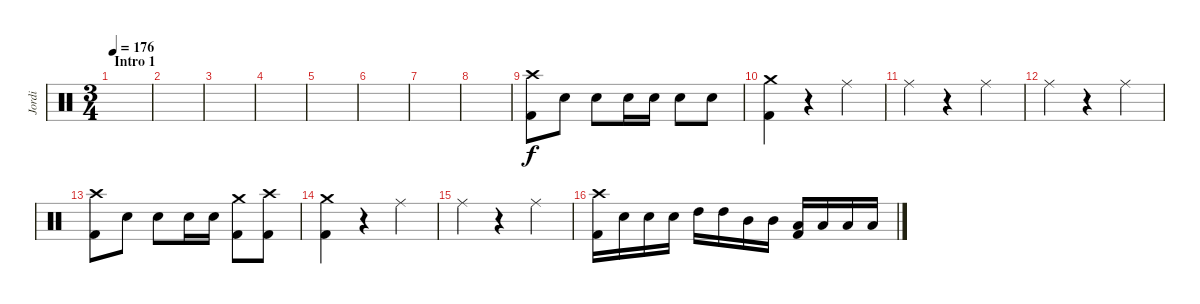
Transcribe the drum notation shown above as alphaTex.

\track ("Jordi" "Jordi") {instrument percussion}
\staff {score}
\articulation defaults
\ts (3 4)
\section ("" "Intro 1")
\tempo 176
\clef neutral
\ks c
|
|
|
|
|
|
|
|
("Crash high (hit)" "Kick (hit) 2").8 "Snare (hit) 2".8 "Snare (hit) 2".8 "Snare (hit) 2".16 "Snare (hit) 2".16 "Snare (hit) 2".8 "Snare (hit) 2".8 |
("Crash medium (hit)" "Kick (hit) 2").4 r.4 "Ride (middle)".4 |
"Ride (middle)".4 r.4 "Ride (middle)".4 |
"Ride (middle)".4 r.4 "Ride (middle)".4 |
("Crash high (hit)" "Kick (hit) 2").8 "Snare (hit) 2".8 "Snare (hit) 2".8 "Snare (hit) 2".16 "Snare (hit) 2".16 ("Crash medium (hit)" "Kick (hit) 2").8 ("Crash high (hit)" "Kick (hit) 2").8 |
("Crash medium (hit)" "Kick (hit) 2").4 r.4 "Ride (middle)".4 |
"Ride (middle)".4 r.4 "Ride (middle)".4 |
("Crash high (hit)" "Kick (hit) 2").16 "Snare (hit) 2".16 "Snare (hit) 2".16 "Snare (hit) 2".16 "High Tom (hit)".16 "High Tom (hit)".16 "Mid Tom (hit)".16 "Mid Tom (hit)".16 ("Low Floor Tom (hit)" "Kick (hit) 2").16 "Low Floor Tom (hit)".16 "Low Floor Tom (hit)".16 "Low Floor Tom (hit)".16
